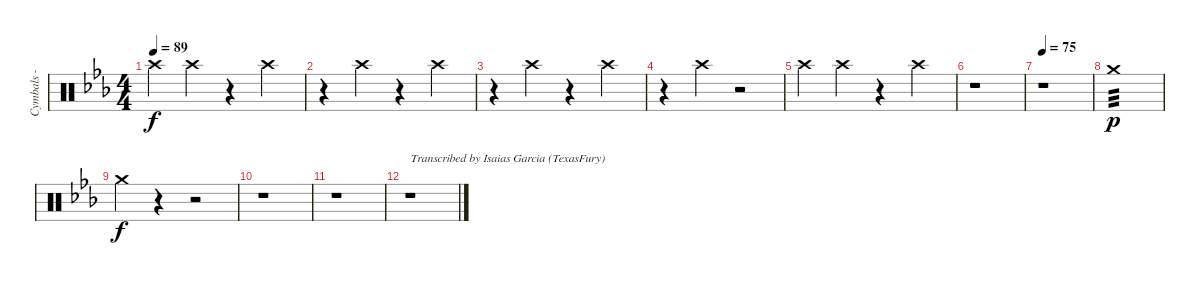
\track ("Cymbals - crash" "Cymbals - ") {instrument percussion}
\staff {score}
\articulation defaults
\ts (4 4)
\tempo 89
\clef neutral
\ks eb "Crash high (hit)".4{dy f} "Crash high (hit)".4
r.4 "Crash high (hit)".4 |
r.4 "Crash high (hit)".4 r.4 "Crash high (hit)".4 |
r.4 "Crash high (hit)".4 r.4 "Crash high (hit)".4 |
r.4 "Crash high (hit)".4 r.2 |
"Crash high (hit)".4 "Crash high (hit)".4 r.4 "Crash high (hit)".4 |
r.1 |
\tempo 75
r.1{volume 1} |
"Crash medium (hit)".1{tp 3 dy p volume 8} |
"Crash medium (hit)".4{dy f volume 3} r.4 r.2 |
r.1 |
r.1 |
r.1{txt "Transcribed by Isaias Garcia (TexasFury)"}
